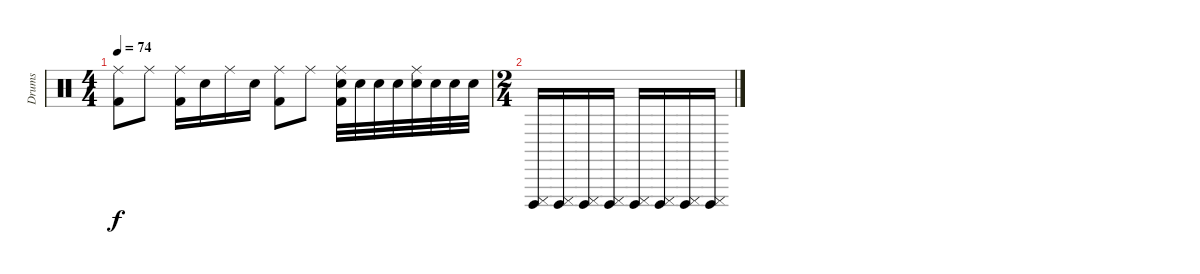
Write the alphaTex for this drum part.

\track ("Drums" "Drums") {instrument percussion}
\staff {score}
\articulation defaults
\ts (4 4)
\tempo 74
\clef neutral
\ks c
("Ride (middle)" "Kick (hit) 2").8{dy f} "Ride (middle)".8 ("Ride (middle)" "Kick (hit) 2").16 "Electric Snare (hit)".16 "Ride (middle)".16 "Electric Snare (hit)".16 ("Ride (middle)" "Kick (hit) 2").8 "Ride (middle)".8 ("Ride (middle)" "Electric Snare (hit)" "Kick (hit) 2").32 "Electric Snare (hit)".32 "Electric Snare (hit)".32 "Electric Snare (hit)".32 ("Ride (middle)" "Electric Snare (hit)").32 "Electric Snare (hit)".32 "Electric Snare (hit)".32 "Electric Snare (hit)".32 |
\ts (2 4)
("Cuica (open)" "Cuica (mute)").16 ("Cuica (open)" "Cuica (mute)").16 ("Cuica (open)" "Cuica (mute)").16 ("Cuica (open)" "Cuica (mute)").16 ("Cuica (open)" "Cuica (mute)").16 ("Cuica (open)" "Cuica (mute)").16 ("Cuica (open)" "Cuica (mute)").16 ("Cuica (open)" "Cuica (mute)").16
